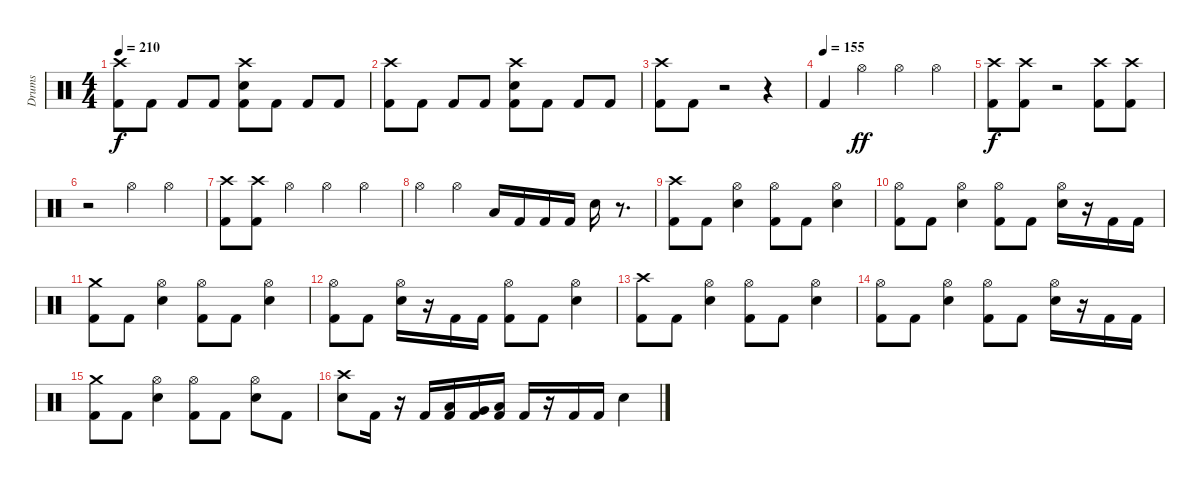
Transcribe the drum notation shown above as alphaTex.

\track ("Drums" "Drums") {instrument percussion}
\staff {score}
\articulation defaults
\ts (4 4)
\tempo 210
\clef neutral
\ks c
("Crash high (hit)" "Kick (hit) 2").8{dy f} "Kick (hit) 2".8 "Kick (hit) 2".8 "Kick (hit) 2".8 ("Crash high (hit)" "Snare (hit) 2" "Kick (hit) 2").8 "Kick (hit) 2".8 "Kick (hit) 2".8 "Kick (hit) 2".8 |
("Crash high (hit)" "Kick (hit) 2").8 "Kick (hit) 2".8 "Kick (hit) 2".8 "Kick (hit) 2".8 ("Crash high (hit)" "Snare (hit) 2" "Kick (hit) 2").8 "Kick (hit) 2".8 "Kick (hit) 2".8 "Kick (hit) 2".8 |
("Crash high (hit)" "Kick (hit) 2").8 "Kick (hit) 2".8 r.2 r.4 |
\tempo (155)
"Kick (hit) 2".4 "Hi-Hat (open)".4{dy ff} "Hi-Hat (open)".4 "Hi-Hat (open)".4 |
("Crash high (hit)" "Kick (hit) 2").8{dy f} ("Crash high (hit)" "Kick (hit) 2").8 r.2 ("Crash high (hit)" "Kick (hit) 2").8 ("Crash high (hit)" "Kick (hit) 2").8 |
r.2 "Hi-Hat (open)".4 "Hi-Hat (open)".4 |
("Crash high (hit)" "Kick (hit) 2").8 ("Crash high (hit)" "Kick (hit) 2").8 "Hi-Hat (open)".4 "Hi-Hat (open)".4 "Hi-Hat (open)".4 |
"Hi-Hat (open)".4 "Hi-Hat (open)".4 "Low Tom (hit)".16 "Kick (hit) 2".16 "Kick (hit) 2".16 "Kick (hit) 2".16 "Snare (hit) 2".16 r.8{d} |
("Crash high (hit)" "Kick (hit) 2").8 "Kick (hit) 2".8 ("Hi-Hat (open)" "Snare (hit) 2").4 ("Hi-Hat (open)" "Kick (hit) 2").8 "Kick (hit) 2".8 ("Hi-Hat (open)" "Snare (hit) 2").4 |
("Hi-Hat (open)" "Kick (hit) 2").8 "Kick (hit) 2".8 ("Hi-Hat (open)" "Snare (hit) 2").4 ("Hi-Hat (open)" "Kick (hit) 2").8 "Kick (hit) 2".8 ("Hi-Hat (open)" "Snare (hit) 2").16 r.16 "Kick (hit) 2".16 "Kick (hit) 2".16 |
("Crash medium (hit)" "Kick (hit) 2").8 "Kick (hit) 2".8 ("Hi-Hat (open)" "Snare (hit) 2").4 ("Hi-Hat (open)" "Kick (hit) 2").8 "Kick (hit) 2".8 ("Hi-Hat (open)" "Snare (hit) 2").4 |
("Hi-Hat (open)" "Kick (hit) 2").8 "Kick (hit) 2".8 ("Hi-Hat (open)" "Snare (hit) 2").16 r.16 "Kick (hit) 2".16 "Kick (hit) 2".16 ("Hi-Hat (open)" "Kick (hit) 2").8 "Kick (hit) 2".8 ("Hi-Hat (open)" "Snare (hit) 2").4 |
("Crash high (hit)" "Kick (hit) 2").8 "Kick (hit) 2".8 ("Hi-Hat (open)" "Snare (hit) 2").4 ("Hi-Hat (open)" "Kick (hit) 2").8 "Kick (hit) 2".8 ("Hi-Hat (open)" "Snare (hit) 2").4 |
("Hi-Hat (open)" "Kick (hit) 2").8 "Kick (hit) 2".8 ("Hi-Hat (open)" "Snare (hit) 2").4 ("Hi-Hat (open)" "Kick (hit) 2").8 "Kick (hit) 2".8 ("Hi-Hat (open)" "Snare (hit) 2").16 r.16 "Kick (hit) 2".16 "Kick (hit) 2".16 |
("Crash medium (hit)" "Kick (hit) 2").8 "Kick (hit) 2".8 ("Hi-Hat (open)" "Snare (hit) 2").4 ("Hi-Hat (open)" "Kick (hit) 2").8 "Kick (hit) 2".8 ("Hi-Hat (open)" "Snare (hit) 2").8 "Kick (hit) 2".8 |
("Crash high (hit)" "Snare (hit) 2").8 "Kick (hit) 2".16 r.16 "Kick (hit) 2".16 ("Low Tom (hit)" "Kick (hit) 2").16 ("Very Low Tom (hit)" "Kick (hit) 2").16 ("Low Floor Tom (hit)" "Kick (hit) 2").16 "Kick (hit) 2".16 r.16 "Kick (hit) 2".16 "Kick (hit) 2".16 "Snare (hit) 2".4
